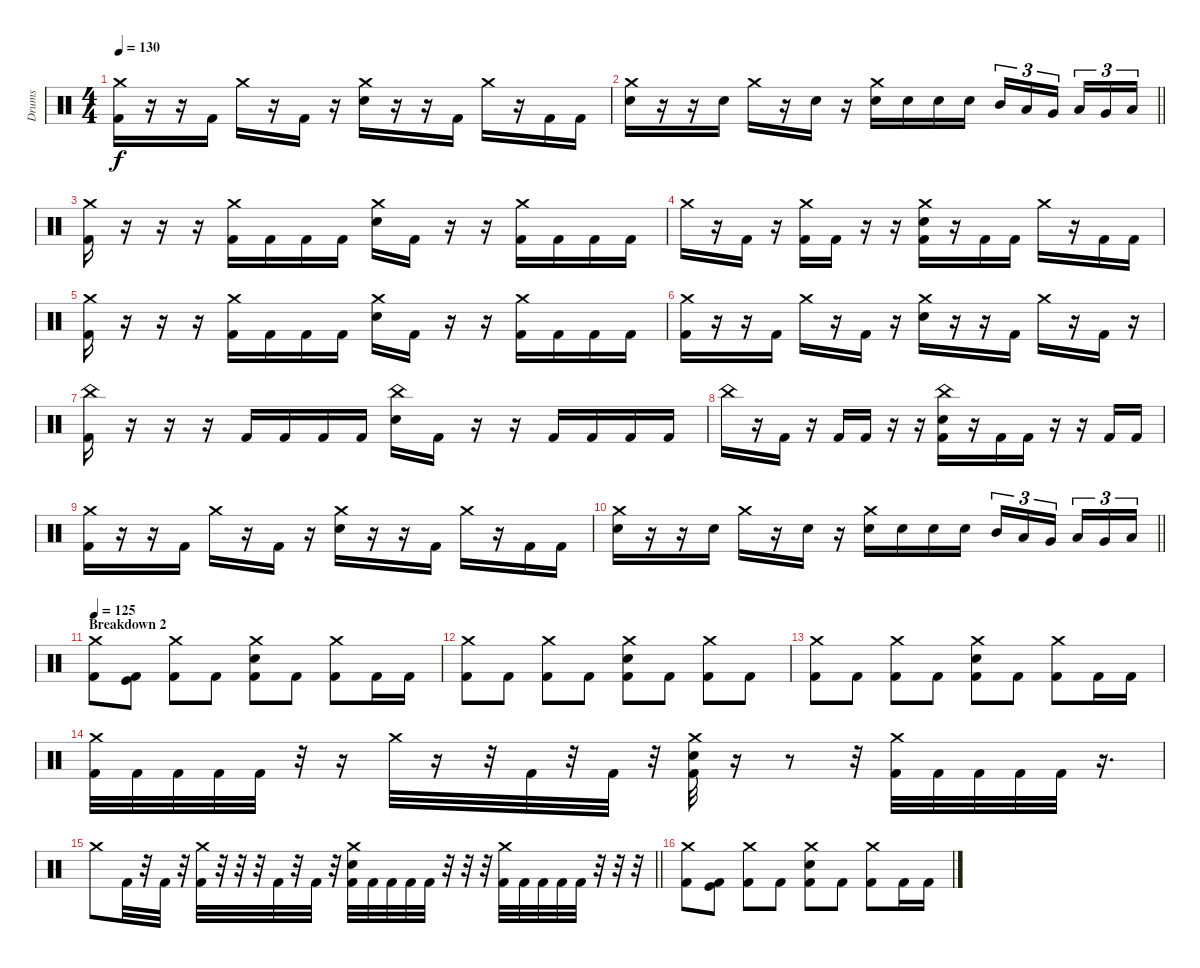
\track ("Drums" "Drums") {instrument percussion}
\staff {score}
\articulation defaults
\ts (4 4)
\tempo 130
\clef neutral
\ks c
("Crash medium (hit)" "Kick (hit) 2").16{dy f} r.16 r.16 "Kick (hit) 2".16 "Crash medium (hit)".16 r.16 "Kick (hit) 2".16 r.16 ("Crash medium (hit)" "Electric Snare (hit)").16 r.16 r.16 "Kick (hit) 2".16 "Crash medium (hit)".16 r.16 "Kick (hit) 2".16 "Kick (hit) 2".16 |
\barLineRight lightlight
("Crash medium (hit)" "Electric Snare (hit)").16 r.16 r.16 "Electric Snare (hit)".16 "Crash medium (hit)".16 r.16 "Electric Snare (hit)".16 r.16 ("Crash medium (hit)" "Electric Snare (hit)").16 "Electric Snare (hit)".16 "Electric Snare (hit)".16 "Electric Snare (hit)".16 "Mid Tom (hit)".16{tu (3 2)} "Low Tom (hit)".16{tu (3 2)} "Very Low Tom (hit)".16{tu (3 2) beam splitsecondary} "Low Tom (hit)".16{tu (3 2)} "Very Low Tom (hit)".16{tu (3 2)} "Low Floor Tom (hit)".16{tu (3 2)} |
\section ("" "")
("Crash medium (hit)" "Kick (hit) 2").16 r.16 r.16 r.16 ("Crash medium (hit)" "Kick (hit) 2").16 "Kick (hit) 2".16 "Kick (hit) 2".16 "Kick (hit) 2".16 ("Crash medium (hit)" "Electric Snare (hit)").16 "Kick (hit) 2".16 r.16 r.16 ("Crash medium (hit)" "Kick (hit) 2").16 "Kick (hit) 2".16 "Kick (hit) 2".16 "Kick (hit) 2".16 |
"Crash medium (hit)".16 r.16 "Kick (hit) 2".16 r.16 ("Crash medium (hit)" "Kick (hit) 2").16 "Kick (hit) 2".16 r.16 r.16 ("Crash medium (hit)" "Electric Snare (hit)" "Kick (hit) 2").16 r.16 "Kick (hit) 2".16 "Kick (hit) 2".16 "Crash medium (hit)".16 r.16 "Kick (hit) 2".16 "Kick (hit) 2".16 |
("Crash medium (hit)" "Kick (hit) 2").16 r.16 r.16 r.16 ("Crash medium (hit)" "Kick (hit) 2").16 "Kick (hit) 2".16 "Kick (hit) 2".16 "Kick (hit) 2".16 ("Crash medium (hit)" "Electric Snare (hit)").16 "Kick (hit) 2".16 r.16 r.16 ("Crash medium (hit)" "Kick (hit) 2").16 "Kick (hit) 2".16 "Kick (hit) 2".16 "Kick (hit) 2".16 |
("Crash medium (hit)" "Kick (hit) 2").16 r.16 r.16 "Kick (hit) 2".16 "Crash medium (hit)".16 r.16 "Kick (hit) 2".16 r.16 ("Crash medium (hit)" "Electric Snare (hit)").16 r.16 r.16 "Kick (hit) 2".16 "Crash medium (hit)".16 r.16 "Kick (hit) 2".16 r.16 |
("China (hit)" "Kick (hit) 2").16 r.16 r.16 r.16 "Kick (hit) 2".16 "Kick (hit) 2".16 "Kick (hit) 2".16 "Kick (hit) 2".16 ("China (hit)" "Electric Snare (hit)").16 "Kick (hit) 2".16 r.16 r.16 "Kick (hit) 2".16 "Kick (hit) 2".16 "Kick (hit) 2".16 "Kick (hit) 2".16 |
"China (hit)".16 r.16 "Kick (hit) 2".16 r.16 "Kick (hit) 2".16 "Kick (hit) 2".16 r.16 r.16 ("China (hit)" "Electric Snare (hit)" "Kick (hit) 2").16 r.16 "Kick (hit) 2".16 "Kick (hit) 2".16 r.16 r.16 "Kick (hit) 2".16 "Kick (hit) 2".16 |
("Crash medium (hit)" "Kick (hit) 2").16 r.16 r.16 "Kick (hit) 2".16 "Crash medium (hit)".16 r.16 "Kick (hit) 2".16 r.16 ("Crash medium (hit)" "Electric Snare (hit)").16 r.16 r.16 "Kick (hit) 2".16 "Crash medium (hit)".16 r.16 "Kick (hit) 2".16 "Kick (hit) 2".16 |
\barLineRight lightlight
("Crash medium (hit)" "Electric Snare (hit)").16 r.16 r.16 "Electric Snare (hit)".16 "Crash medium (hit)".16 r.16 "Electric Snare (hit)".16 r.16 ("Crash medium (hit)" "Electric Snare (hit)").16 "Electric Snare (hit)".16 "Electric Snare (hit)".16 "Electric Snare (hit)".16 "Mid Tom (hit)".16{tu (3 2)} "Low Tom (hit)".16{tu (3 2)} "Very Low Tom (hit)".16{tu (3 2) beam splitsecondary} "Low Tom (hit)".16{tu (3 2)} "Very Low Tom (hit)".16{tu (3 2)} "Low Floor Tom (hit)".16{tu (3 2)} |
\section ("" "Breakdown 2")
\tempo 125
("Crash medium (hit)" "Kick (hit) 2").8 ("Kick (hit)" "Kick (hit) 2").8 ("Crash medium (hit)" "Kick (hit) 2").8 "Kick (hit) 2".8 ("Crash medium (hit)" "Electric Snare (hit)" "Kick (hit) 2").8 "Kick (hit) 2".8 ("Crash medium (hit)" "Kick (hit) 2").8 "Kick (hit) 2".16 "Kick (hit) 2".16 |
("Crash medium (hit)" "Kick (hit) 2").8 "Kick (hit) 2".8 ("Crash medium (hit)" "Kick (hit) 2").8 "Kick (hit) 2".8 ("Crash medium (hit)" "Electric Snare (hit)" "Kick (hit) 2").8 "Kick (hit) 2".8 ("Crash medium (hit)" "Kick (hit) 2").8 "Kick (hit) 2".8 |
("Crash medium (hit)" "Kick (hit) 2").8 "Kick (hit) 2".8 ("Crash medium (hit)" "Kick (hit) 2").8 "Kick (hit) 2".8 ("Crash medium (hit)" "Electric Snare (hit)" "Kick (hit) 2").8 "Kick (hit) 2".8 ("Crash medium (hit)" "Kick (hit) 2").8 "Kick (hit) 2".16 "Kick (hit) 2".16 |
("Crash medium (hit)" "Kick (hit) 2").32 "Kick (hit) 2".32 "Kick (hit) 2".32 "Kick (hit) 2".32 "Kick (hit) 2".32 r.32 r.16 "Crash medium (hit)".32 r.16 r.32 "Kick (hit) 2".32 r.32 "Kick (hit) 2".32 r.32 ("Crash medium (hit)" "Electric Snare (hit)" "Kick (hit) 2").32 r.16 r.8 r.32 ("Crash medium (hit)" "Kick (hit) 2").32 "Kick (hit) 2".32 "Kick (hit) 2".32 "Kick (hit) 2".32 "Kick (hit) 2".32 r.16{d} |
\barLineRight lightlight "Crash medium (hit)".8 "Kick (hit) 2".32
r.32 "Kick (hit) 2".32 r.32 ("Crash medium (hit)" "Kick (hit) 2").32 r.32 r.32 r.32 "Kick (hit) 2".32 r.32 "Kick (hit) 2".32 r.32 ("Crash medium (hit)" "Electric Snare (hit)" "Kick (hit) 2").32 "Kick (hit) 2".32 "Kick (hit) 2".32 "Kick (hit) 2".32 "Kick (hit) 2".32 r.32 r.32 r.32 ("Crash medium (hit)" "Kick (hit) 2").32 "Kick (hit) 2".32 "Kick (hit) 2".32 "Kick (hit) 2".32 "Kick (hit) 2".32 r.32 r.32 r.32 |
\section ("" "")
("Crash medium (hit)" "Kick (hit) 2").8 ("Kick (hit)" "Kick (hit) 2").8 ("Crash medium (hit)" "Kick (hit) 2").8 "Kick (hit) 2".8 ("Crash medium (hit)" "Electric Snare (hit)" "Kick (hit) 2").8 "Kick (hit) 2".8 ("Crash medium (hit)" "Kick (hit) 2").8 "Kick (hit) 2".16 "Kick (hit) 2".16
